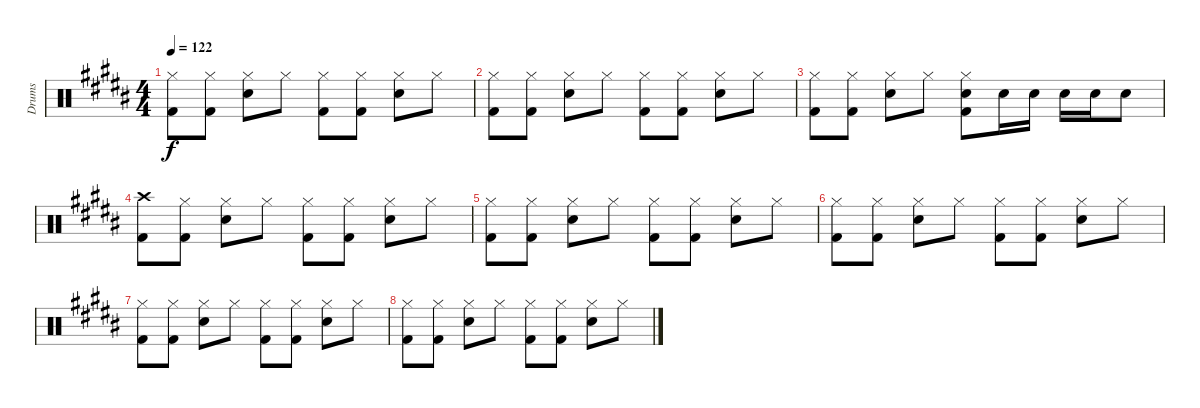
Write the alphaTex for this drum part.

\track ("Drums" "Drums") {instrument percussion}
\staff {score}
\articulation defaults
\ts (4 4)
\tempo 122
\clef neutral
\ks b
("Hi-Hat (closed)" "Kick (hit) 2").8{dy f} ("Hi-Hat (closed)" "Kick (hit) 2").8 ("Hi-Hat (closed)" "Snare (hit) 2").8 "Hi-Hat (closed)".8 ("Hi-Hat (closed)" "Kick (hit) 2").8 ("Hi-Hat (closed)" "Kick (hit) 2").8 ("Hi-Hat (closed)" "Snare (hit) 2").8 "Hi-Hat (closed)".8 |
("Hi-Hat (closed)" "Kick (hit) 2").8 ("Hi-Hat (closed)" "Kick (hit) 2").8 ("Hi-Hat (closed)" "Snare (hit) 2").8 "Hi-Hat (closed)".8 ("Hi-Hat (closed)" "Kick (hit) 2").8 ("Hi-Hat (closed)" "Kick (hit) 2").8 ("Hi-Hat (closed)" "Snare (hit) 2").8 "Hi-Hat (closed)".8 |
("Hi-Hat (closed)" "Kick (hit) 2").8 ("Hi-Hat (closed)" "Kick (hit) 2").8 ("Hi-Hat (closed)" "Snare (hit) 2").8 "Hi-Hat (closed)".8 ("Hi-Hat (closed)" "Snare (hit) 2" "Kick (hit) 2").8 "Snare (hit) 2".16 "Snare (hit) 2".16 "Snare (hit) 2".16 "Snare (hit) 2".16 "Snare (hit) 2".8 |
("Crash high (hit)" "Kick (hit) 2").8 ("Hi-Hat (closed)" "Kick (hit) 2").8 ("Hi-Hat (closed)" "Snare (hit) 2").8 "Hi-Hat (closed)".8 ("Hi-Hat (closed)" "Kick (hit) 2").8 ("Hi-Hat (closed)" "Kick (hit) 2").8 ("Hi-Hat (closed)" "Snare (hit) 2").8 "Hi-Hat (closed)".8 |
("Hi-Hat (closed)" "Kick (hit) 2").8 ("Hi-Hat (closed)" "Kick (hit) 2").8 ("Hi-Hat (closed)" "Snare (hit) 2").8 "Hi-Hat (closed)".8 ("Hi-Hat (closed)" "Kick (hit) 2").8 ("Hi-Hat (closed)" "Kick (hit) 2").8 ("Hi-Hat (closed)" "Snare (hit) 2").8 "Hi-Hat (closed)".8 |
("Hi-Hat (closed)" "Kick (hit) 2").8 ("Hi-Hat (closed)" "Kick (hit) 2").8 ("Hi-Hat (closed)" "Snare (hit) 2").8 "Hi-Hat (closed)".8 ("Hi-Hat (closed)" "Kick (hit) 2").8 ("Hi-Hat (closed)" "Kick (hit) 2").8 ("Hi-Hat (closed)" "Snare (hit) 2").8 "Hi-Hat (closed)".8 |
("Hi-Hat (closed)" "Kick (hit) 2").8 ("Hi-Hat (closed)" "Kick (hit) 2").8 ("Hi-Hat (closed)" "Snare (hit) 2").8 "Hi-Hat (closed)".8 ("Hi-Hat (closed)" "Kick (hit) 2").8 ("Hi-Hat (closed)" "Kick (hit) 2").8 ("Hi-Hat (closed)" "Snare (hit) 2").8 "Hi-Hat (closed)".8 |
("Hi-Hat (closed)" "Kick (hit) 2").8 ("Hi-Hat (closed)" "Kick (hit) 2").8 ("Hi-Hat (closed)" "Snare (hit) 2").8 "Hi-Hat (closed)".8 ("Hi-Hat (closed)" "Kick (hit) 2").8 ("Hi-Hat (closed)" "Kick (hit) 2").8 ("Hi-Hat (closed)" "Snare (hit) 2").8 "Hi-Hat (closed)".8
